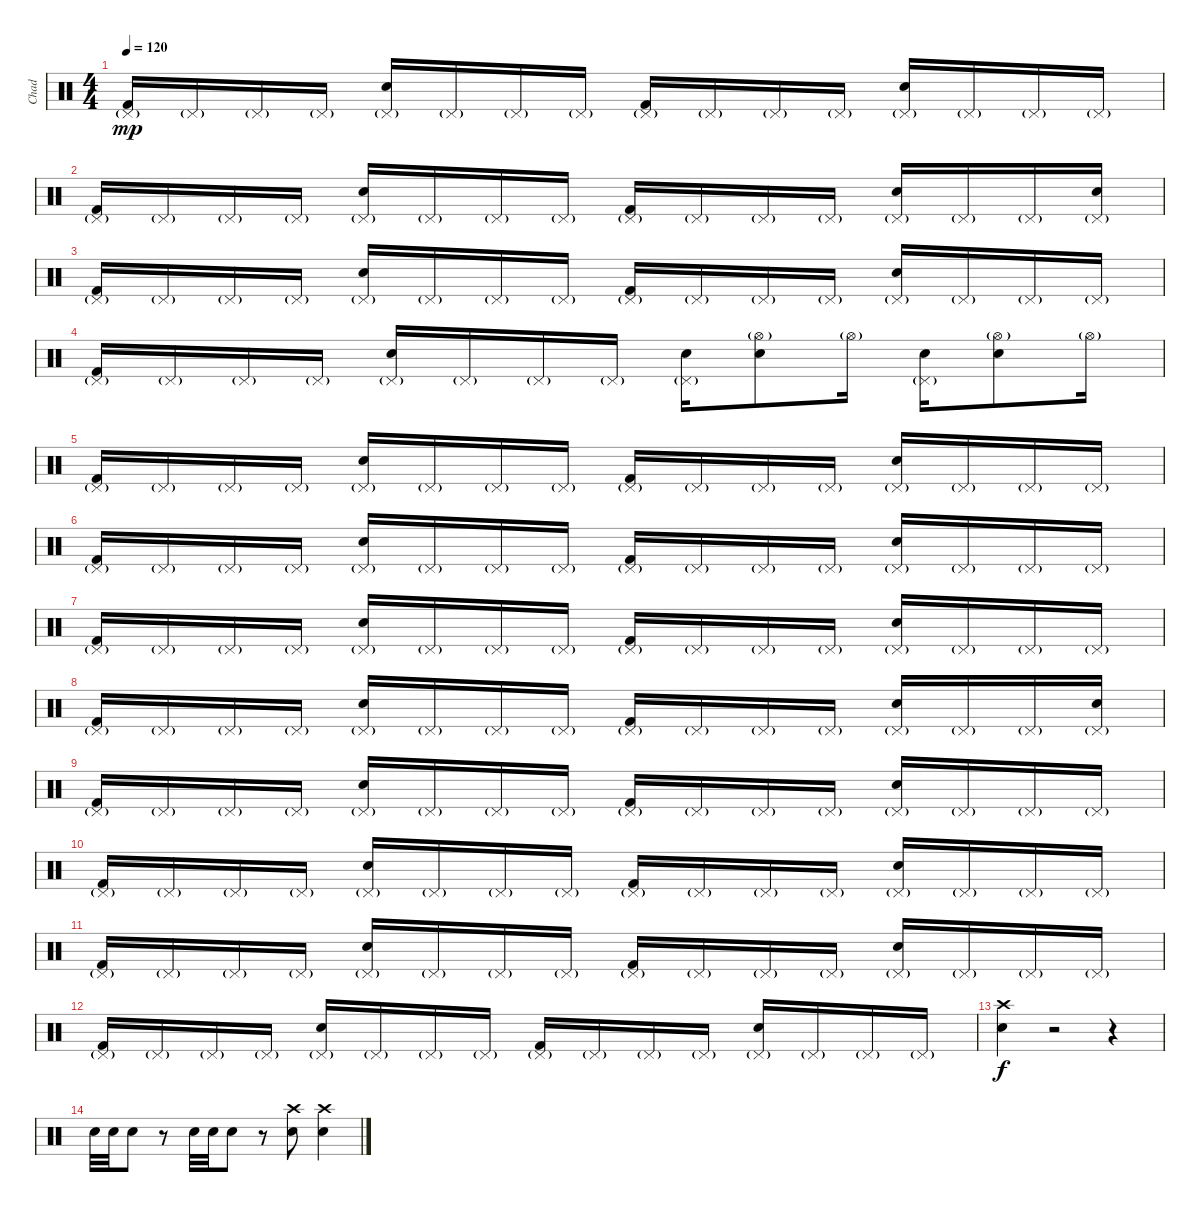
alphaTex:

\track ("Chad" "Chad") {instrument percussion}
\staff {score}
\articulation defaults
\ts (4 4)
\tempo 120
\clef neutral
\ks c
("Kick (hit) 2" "Pedal Hi-Hat (hit)"{g}).16{dy mp} "Pedal Hi-Hat (hit)"{g}.16 "Pedal Hi-Hat (hit)"{g}.16 "Pedal Hi-Hat (hit)"{g}.16 ("Electric Snare (hit)" "Pedal Hi-Hat (hit)"{g}).16 "Pedal Hi-Hat (hit)"{g}.16 "Pedal Hi-Hat (hit)"{g}.16 "Pedal Hi-Hat (hit)"{g}.16 ("Kick (hit) 2" "Pedal Hi-Hat (hit)"{g}).16 "Pedal Hi-Hat (hit)"{g}.16 "Pedal Hi-Hat (hit)"{g}.16 "Pedal Hi-Hat (hit)"{g}.16 ("Electric Snare (hit)" "Pedal Hi-Hat (hit)"{g}).16 "Pedal Hi-Hat (hit)"{g}.16 "Pedal Hi-Hat (hit)"{g}.16 "Pedal Hi-Hat (hit)"{g}.16 |
("Kick (hit) 2" "Pedal Hi-Hat (hit)"{g}).16 "Pedal Hi-Hat (hit)"{g}.16 "Pedal Hi-Hat (hit)"{g}.16 "Pedal Hi-Hat (hit)"{g}.16 ("Electric Snare (hit)" "Pedal Hi-Hat (hit)"{g}).16 "Pedal Hi-Hat (hit)"{g}.16 "Pedal Hi-Hat (hit)"{g}.16 "Pedal Hi-Hat (hit)"{g}.16 ("Kick (hit) 2" "Pedal Hi-Hat (hit)"{g}).16 "Pedal Hi-Hat (hit)"{g}.16 "Pedal Hi-Hat (hit)"{g}.16 "Pedal Hi-Hat (hit)"{g}.16 ("Electric Snare (hit)" "Pedal Hi-Hat (hit)"{g}).16 "Pedal Hi-Hat (hit)"{g}.16 "Pedal Hi-Hat (hit)"{g}.16 ("Electric Snare (hit)" "Pedal Hi-Hat (hit)"{g}).16 |
("Kick (hit) 2" "Pedal Hi-Hat (hit)"{g}).16 "Pedal Hi-Hat (hit)"{g}.16 "Pedal Hi-Hat (hit)"{g}.16 "Pedal Hi-Hat (hit)"{g}.16 ("Electric Snare (hit)" "Pedal Hi-Hat (hit)"{g}).16 "Pedal Hi-Hat (hit)"{g}.16 "Pedal Hi-Hat (hit)"{g}.16 "Pedal Hi-Hat (hit)"{g}.16 ("Kick (hit) 2" "Pedal Hi-Hat (hit)"{g}).16 "Pedal Hi-Hat (hit)"{g}.16 "Pedal Hi-Hat (hit)"{g}.16 "Pedal Hi-Hat (hit)"{g}.16 ("Electric Snare (hit)" "Pedal Hi-Hat (hit)"{g}).16 "Pedal Hi-Hat (hit)"{g}.16 "Pedal Hi-Hat (hit)"{g}.16 "Pedal Hi-Hat (hit)"{g}.16 |
("Kick (hit) 2" "Pedal Hi-Hat (hit)"{g}).16 "Pedal Hi-Hat (hit)"{g}.16 "Pedal Hi-Hat (hit)"{g}.16 "Pedal Hi-Hat (hit)"{g}.16 ("Electric Snare (hit)" "Pedal Hi-Hat (hit)"{g}).16 "Pedal Hi-Hat (hit)"{g}.16 "Pedal Hi-Hat (hit)"{g}.16 "Pedal Hi-Hat (hit)"{g}.16 ("Electric Snare (hit)" "Pedal Hi-Hat (hit)"{g}).16 ("Electric Snare (hit)" "Hi-Hat (open)"{g}).8 "Hi-Hat (open)"{g}.16 ("Electric Snare (hit)" "Pedal Hi-Hat (hit)"{g}).16 ("Electric Snare (hit)" "Hi-Hat (open)"{g}).8 "Hi-Hat (open)"{g}.16 |
("Kick (hit) 2" "Pedal Hi-Hat (hit)"{g}).16 "Pedal Hi-Hat (hit)"{g}.16 "Pedal Hi-Hat (hit)"{g}.16 "Pedal Hi-Hat (hit)"{g}.16 ("Electric Snare (hit)" "Pedal Hi-Hat (hit)"{g}).16 "Pedal Hi-Hat (hit)"{g}.16 "Pedal Hi-Hat (hit)"{g}.16 "Pedal Hi-Hat (hit)"{g}.16 ("Kick (hit) 2" "Pedal Hi-Hat (hit)"{g}).16 "Pedal Hi-Hat (hit)"{g}.16 "Pedal Hi-Hat (hit)"{g}.16 "Pedal Hi-Hat (hit)"{g}.16 ("Electric Snare (hit)" "Pedal Hi-Hat (hit)"{g}).16 "Pedal Hi-Hat (hit)"{g}.16 "Pedal Hi-Hat (hit)"{g}.16 "Pedal Hi-Hat (hit)"{g}.16 |
("Kick (hit) 2" "Pedal Hi-Hat (hit)"{g}).16 "Pedal Hi-Hat (hit)"{g}.16 "Pedal Hi-Hat (hit)"{g}.16 "Pedal Hi-Hat (hit)"{g}.16 ("Electric Snare (hit)" "Pedal Hi-Hat (hit)"{g}).16 "Pedal Hi-Hat (hit)"{g}.16 "Pedal Hi-Hat (hit)"{g}.16 "Pedal Hi-Hat (hit)"{g}.16 ("Kick (hit) 2" "Pedal Hi-Hat (hit)"{g}).16 "Pedal Hi-Hat (hit)"{g}.16 "Pedal Hi-Hat (hit)"{g}.16 "Pedal Hi-Hat (hit)"{g}.16 ("Electric Snare (hit)" "Pedal Hi-Hat (hit)"{g}).16 "Pedal Hi-Hat (hit)"{g}.16 "Pedal Hi-Hat (hit)"{g}.16 "Pedal Hi-Hat (hit)"{g}.16 |
("Kick (hit) 2" "Pedal Hi-Hat (hit)"{g}).16 "Pedal Hi-Hat (hit)"{g}.16 "Pedal Hi-Hat (hit)"{g}.16 "Pedal Hi-Hat (hit)"{g}.16 ("Electric Snare (hit)" "Pedal Hi-Hat (hit)"{g}).16 "Pedal Hi-Hat (hit)"{g}.16 "Pedal Hi-Hat (hit)"{g}.16 "Pedal Hi-Hat (hit)"{g}.16 ("Kick (hit) 2" "Pedal Hi-Hat (hit)"{g}).16 "Pedal Hi-Hat (hit)"{g}.16 "Pedal Hi-Hat (hit)"{g}.16 "Pedal Hi-Hat (hit)"{g}.16 ("Electric Snare (hit)" "Pedal Hi-Hat (hit)"{g}).16 "Pedal Hi-Hat (hit)"{g}.16 "Pedal Hi-Hat (hit)"{g}.16 "Pedal Hi-Hat (hit)"{g}.16 |
("Kick (hit) 2" "Pedal Hi-Hat (hit)"{g}).16 "Pedal Hi-Hat (hit)"{g}.16 "Pedal Hi-Hat (hit)"{g}.16 "Pedal Hi-Hat (hit)"{g}.16 ("Electric Snare (hit)" "Pedal Hi-Hat (hit)"{g}).16 "Pedal Hi-Hat (hit)"{g}.16 "Pedal Hi-Hat (hit)"{g}.16 "Pedal Hi-Hat (hit)"{g}.16 ("Kick (hit) 2" "Pedal Hi-Hat (hit)"{g}).16 "Pedal Hi-Hat (hit)"{g}.16 "Pedal Hi-Hat (hit)"{g}.16 "Pedal Hi-Hat (hit)"{g}.16 ("Electric Snare (hit)" "Pedal Hi-Hat (hit)"{g}).16 "Pedal Hi-Hat (hit)"{g}.16 "Pedal Hi-Hat (hit)"{g}.16 ("Electric Snare (hit)" "Pedal Hi-Hat (hit)"{g}).16 |
("Kick (hit) 2" "Pedal Hi-Hat (hit)"{g}).16 "Pedal Hi-Hat (hit)"{g}.16 "Pedal Hi-Hat (hit)"{g}.16 "Pedal Hi-Hat (hit)"{g}.16 ("Electric Snare (hit)" "Pedal Hi-Hat (hit)"{g}).16 "Pedal Hi-Hat (hit)"{g}.16 "Pedal Hi-Hat (hit)"{g}.16 "Pedal Hi-Hat (hit)"{g}.16 ("Kick (hit) 2" "Pedal Hi-Hat (hit)"{g}).16 "Pedal Hi-Hat (hit)"{g}.16 "Pedal Hi-Hat (hit)"{g}.16 "Pedal Hi-Hat (hit)"{g}.16 ("Electric Snare (hit)" "Pedal Hi-Hat (hit)"{g}).16 "Pedal Hi-Hat (hit)"{g}.16 "Pedal Hi-Hat (hit)"{g}.16 "Pedal Hi-Hat (hit)"{g}.16 |
("Kick (hit) 2" "Pedal Hi-Hat (hit)"{g}).16 "Pedal Hi-Hat (hit)"{g}.16 "Pedal Hi-Hat (hit)"{g}.16 "Pedal Hi-Hat (hit)"{g}.16 ("Electric Snare (hit)" "Pedal Hi-Hat (hit)"{g}).16 "Pedal Hi-Hat (hit)"{g}.16 "Pedal Hi-Hat (hit)"{g}.16 "Pedal Hi-Hat (hit)"{g}.16 ("Kick (hit) 2" "Pedal Hi-Hat (hit)"{g}).16 "Pedal Hi-Hat (hit)"{g}.16 "Pedal Hi-Hat (hit)"{g}.16 "Pedal Hi-Hat (hit)"{g}.16 ("Electric Snare (hit)" "Pedal Hi-Hat (hit)"{g}).16 "Pedal Hi-Hat (hit)"{g}.16 "Pedal Hi-Hat (hit)"{g}.16 "Pedal Hi-Hat (hit)"{g}.16 |
("Kick (hit) 2" "Pedal Hi-Hat (hit)"{g}).16 "Pedal Hi-Hat (hit)"{g}.16 "Pedal Hi-Hat (hit)"{g}.16 "Pedal Hi-Hat (hit)"{g}.16 ("Electric Snare (hit)" "Pedal Hi-Hat (hit)"{g}).16 "Pedal Hi-Hat (hit)"{g}.16 "Pedal Hi-Hat (hit)"{g}.16 "Pedal Hi-Hat (hit)"{g}.16 ("Kick (hit) 2" "Pedal Hi-Hat (hit)"{g}).16 "Pedal Hi-Hat (hit)"{g}.16 "Pedal Hi-Hat (hit)"{g}.16 "Pedal Hi-Hat (hit)"{g}.16 ("Electric Snare (hit)" "Pedal Hi-Hat (hit)"{g}).16 "Pedal Hi-Hat (hit)"{g}.16 "Pedal Hi-Hat (hit)"{g}.16 "Pedal Hi-Hat (hit)"{g}.16 |
("Kick (hit) 2" "Pedal Hi-Hat (hit)"{g}).16 "Pedal Hi-Hat (hit)"{g}.16 "Pedal Hi-Hat (hit)"{g}.16 "Pedal Hi-Hat (hit)"{g}.16 ("Electric Snare (hit)" "Pedal Hi-Hat (hit)"{g}).16 "Pedal Hi-Hat (hit)"{g}.16 "Pedal Hi-Hat (hit)"{g}.16 "Pedal Hi-Hat (hit)"{g}.16 ("Kick (hit) 2" "Pedal Hi-Hat (hit)"{g}).16 "Pedal Hi-Hat (hit)"{g}.16 "Pedal Hi-Hat (hit)"{g}.16 "Pedal Hi-Hat (hit)"{g}.16 ("Electric Snare (hit)" "Pedal Hi-Hat (hit)"{g}).16 "Pedal Hi-Hat (hit)"{g}.16 "Pedal Hi-Hat (hit)"{g}.16 "Pedal Hi-Hat (hit)"{g}.16 |
("Electric Snare (hit)" "Crash high (hit)").4{dy f} r.2 r.4 |
"Electric Snare (hit)".32 "Electric Snare (hit)".32 "Electric Snare (hit)".8 r.8 "Electric Snare (hit)".32 "Electric Snare (hit)".32 "Electric Snare (hit)".8 r.8 ("Electric Snare (hit)" "Crash high (hit)").8 ("Electric Snare (hit)" "Crash high (hit)").4
